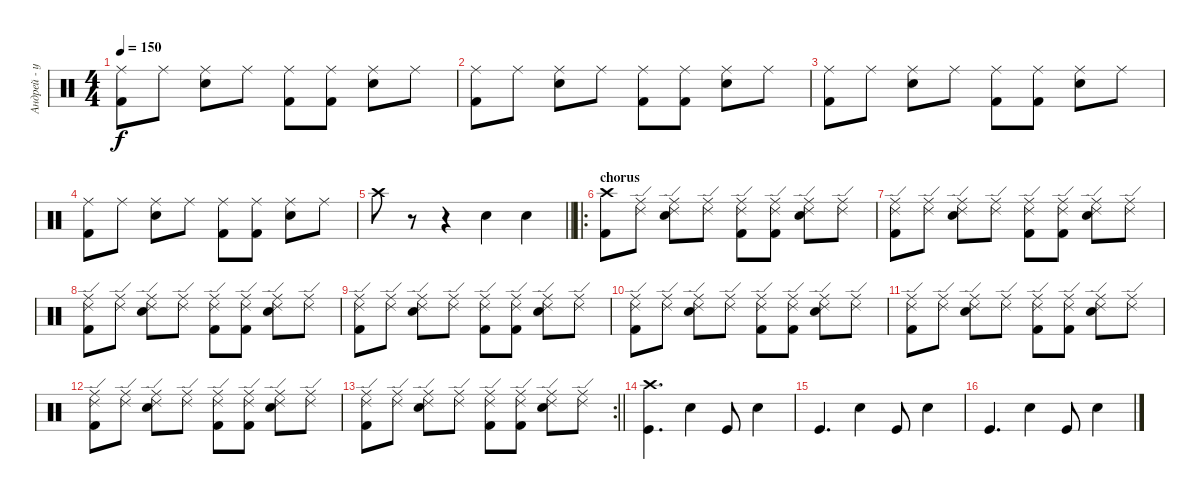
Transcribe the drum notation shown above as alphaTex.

\track ("Андрей - ударные" "Андрей - у") {instrument percussion}
\staff
\articulation defaults
\ts (4 4)
\tempo 150
\clef neutral
\ks c
("Ride (middle)" "Kick (hit) 2").8{dy f} "Ride (middle)".8 ("Ride (middle)" "Electric Snare (hit)").8 "Ride (middle)".8 ("Ride (middle)" "Kick (hit) 2").8 ("Ride (middle)" "Kick (hit) 2").8 ("Ride (middle)" "Electric Snare (hit)").8 "Ride (middle)".8 |
("Ride (middle)" "Kick (hit) 2").8 "Ride (middle)".8 ("Ride (middle)" "Electric Snare (hit)").8 "Ride (middle)".8 ("Ride (middle)" "Kick (hit) 2").8 ("Ride (middle)" "Kick (hit) 2").8 ("Ride (middle)" "Electric Snare (hit)").8 "Ride (middle)".8 |
("Ride (middle)" "Kick (hit) 2").8 "Ride (middle)".8 ("Ride (middle)" "Electric Snare (hit)").8 "Ride (middle)".8 ("Ride (middle)" "Kick (hit) 2").8 ("Ride (middle)" "Kick (hit) 2").8 ("Ride (middle)" "Electric Snare (hit)").8 "Ride (middle)".8 |
("Ride (middle)" "Kick (hit) 2").8 "Ride (middle)".8 ("Ride (middle)" "Electric Snare (hit)").8 "Ride (middle)".8 ("Ride (middle)" "Kick (hit) 2").8 ("Ride (middle)" "Kick (hit) 2").8 ("Ride (middle)" "Electric Snare (hit)").8 "Ride (middle)".8 |
\barLineRight lightlight "Crash high (hit)".8
r.8 r.4 "Electric Snare (hit)".4 "Electric Snare (hit)".4 |
\ro
\section ("" "chorus")
("Crash high (hit)" "Kick (hit) 2").8 ("Ride (middle)" "Ride (edge) 2").8 ("Ride (middle)" "Ride (edge) 2" "Electric Snare (hit)").8 ("Ride (middle)" "Ride (edge) 2").8 ("Ride (middle)" "Ride (edge) 2" "Kick (hit) 2").8 ("Ride (middle)" "Ride (edge) 2" "Kick (hit) 2").8 ("Ride (middle)" "Ride (edge) 2" "Electric Snare (hit)").8 ("Ride (middle)" "Ride (edge) 2").8 |
("Ride (middle)" "Ride (edge) 2" "Kick (hit) 2").8 ("Ride (middle)" "Ride (edge) 2").8 ("Ride (middle)" "Ride (edge) 2" "Electric Snare (hit)").8 ("Ride (middle)" "Ride (edge) 2").8 ("Ride (middle)" "Ride (edge) 2" "Kick (hit) 2").8 ("Ride (middle)" "Ride (edge) 2" "Kick (hit) 2").8 ("Ride (middle)" "Ride (edge) 2" "Electric Snare (hit)").8 ("Ride (middle)" "Ride (edge) 2").8 |
("Ride (middle)" "Ride (edge) 2" "Kick (hit) 2").8 ("Ride (middle)" "Ride (edge) 2").8 ("Ride (middle)" "Ride (edge) 2" "Electric Snare (hit)").8 ("Ride (middle)" "Ride (edge) 2").8 ("Ride (middle)" "Ride (edge) 2" "Kick (hit) 2").8 ("Ride (middle)" "Ride (edge) 2" "Kick (hit) 2").8 ("Ride (middle)" "Ride (edge) 2" "Electric Snare (hit)").8 ("Ride (middle)" "Ride (edge) 2").8 |
("Ride (middle)" "Ride (edge) 2" "Kick (hit) 2").8 ("Ride (middle)" "Ride (edge) 2").8 ("Ride (middle)" "Ride (edge) 2" "Electric Snare (hit)").8 ("Ride (middle)" "Ride (edge) 2").8 ("Ride (middle)" "Ride (edge) 2" "Kick (hit) 2").8 ("Ride (middle)" "Ride (edge) 2" "Kick (hit) 2").8 ("Ride (middle)" "Ride (edge) 2" "Electric Snare (hit)").8 ("Ride (middle)" "Ride (edge) 2").8 |
("Ride (middle)" "Ride (edge) 2" "Kick (hit) 2").8 ("Ride (middle)" "Ride (edge) 2").8 ("Ride (middle)" "Ride (edge) 2" "Electric Snare (hit)").8 ("Ride (middle)" "Ride (edge) 2").8 ("Ride (middle)" "Ride (edge) 2" "Kick (hit) 2").8 ("Ride (middle)" "Ride (edge) 2" "Kick (hit) 2").8 ("Ride (middle)" "Ride (edge) 2" "Electric Snare (hit)").8 ("Ride (middle)" "Ride (edge) 2").8 |
("Ride (middle)" "Ride (edge) 2" "Kick (hit) 2").8 ("Ride (middle)" "Ride (edge) 2").8 ("Ride (middle)" "Ride (edge) 2" "Electric Snare (hit)").8 ("Ride (middle)" "Ride (edge) 2").8 ("Ride (middle)" "Ride (edge) 2" "Kick (hit) 2").8 ("Ride (middle)" "Ride (edge) 2" "Kick (hit) 2").8 ("Ride (middle)" "Ride (edge) 2" "Electric Snare (hit)").8 ("Ride (middle)" "Ride (edge) 2").8 |
("Ride (middle)" "Ride (edge) 2" "Kick (hit) 2").8 ("Ride (middle)" "Ride (edge) 2").8 ("Ride (middle)" "Ride (edge) 2" "Electric Snare (hit)").8 ("Ride (middle)" "Ride (edge) 2").8 ("Ride (middle)" "Ride (edge) 2" "Kick (hit) 2").8 ("Ride (middle)" "Ride (edge) 2" "Kick (hit) 2").8 ("Ride (middle)" "Ride (edge) 2" "Electric Snare (hit)").8 ("Ride (middle)" "Ride (edge) 2").8 |
\rc 2
\barLineRight lightlight
("Ride (middle)" "Ride (edge) 2" "Kick (hit) 2").8 ("Ride (middle)" "Ride (edge) 2").8 ("Ride (middle)" "Ride (edge) 2" "Electric Snare (hit)").8 ("Ride (middle)" "Ride (edge) 2").8 ("Ride (middle)" "Ride (edge) 2" "Kick (hit) 2").8 ("Ride (middle)" "Ride (edge) 2" "Kick (hit) 2").8 ("Ride (middle)" "Ride (edge) 2" "Electric Snare (hit)").8 ("Ride (middle)" "Ride (edge) 2").8 |
("Crash high (hit)" "Kick (hit)").4{d volume 10} "Snare (hit) 2".4 "Kick (hit)".8 "Snare (hit) 2".4 |
"Kick (hit)".4{d} "Snare (hit) 2".4 "Kick (hit)".8 "Snare (hit) 2".4 |
"Kick (hit)".4{d} "Snare (hit) 2".4 "Kick (hit)".8 "Snare (hit) 2".4
